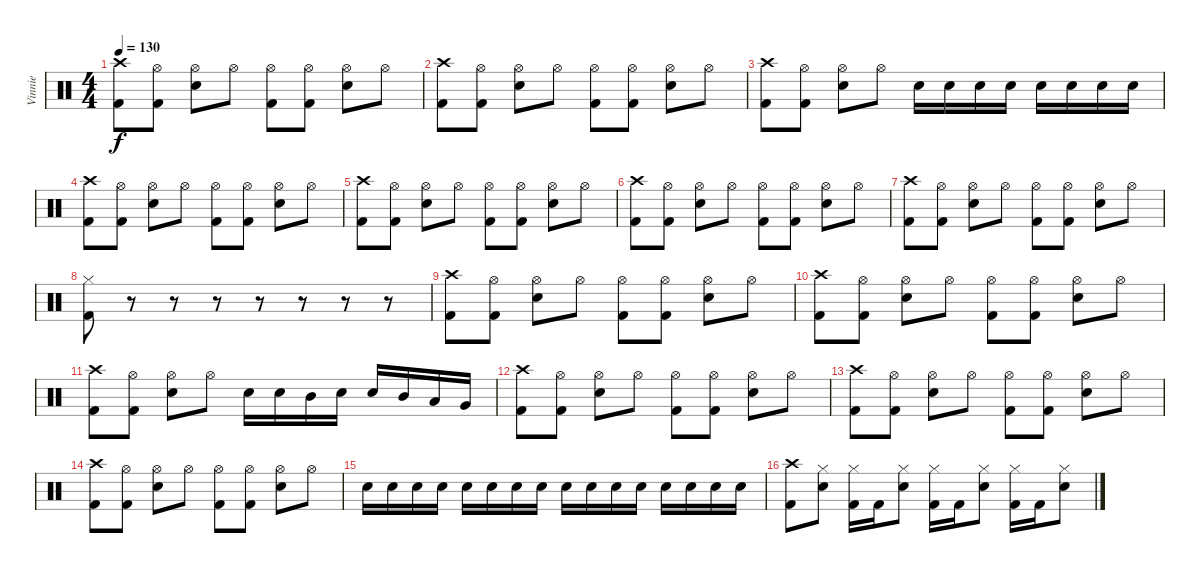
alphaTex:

\track ("Vinnie" "Vinnie") {instrument percussion}
\staff {score}
\articulation defaults
\ts (4 4)
\tempo 130
\clef neutral
\ks c
("Crash high (hit)" "Kick (hit) 2").8{dy f} ("Hi-Hat (open)" "Kick (hit) 2").8 ("Hi-Hat (open)" "Electric Snare (hit)").8 "Hi-Hat (open)".8 ("Hi-Hat (open)" "Kick (hit) 2").8 ("Hi-Hat (open)" "Kick (hit) 2").8 ("Hi-Hat (open)" "Electric Snare (hit)").8 "Hi-Hat (open)".8 |
("Crash high (hit)" "Kick (hit) 2").8 ("Hi-Hat (open)" "Kick (hit) 2").8 ("Hi-Hat (open)" "Electric Snare (hit)").8 "Hi-Hat (open)".8 ("Hi-Hat (open)" "Kick (hit) 2").8 ("Hi-Hat (open)" "Kick (hit) 2").8 ("Hi-Hat (open)" "Electric Snare (hit)").8 "Hi-Hat (open)".8 |
("Crash high (hit)" "Kick (hit) 2").8 ("Hi-Hat (open)" "Kick (hit) 2").8 ("Hi-Hat (open)" "Electric Snare (hit)").8 "Hi-Hat (open)".8 "Electric Snare (hit)".16 "Electric Snare (hit)".16 "Electric Snare (hit)".16 "Electric Snare (hit)".16 "Electric Snare (hit)".16 "Electric Snare (hit)".16 "Electric Snare (hit)".16 "Electric Snare (hit)".16 |
("Crash high (hit)" "Kick (hit) 2").8 ("Hi-Hat (open)" "Kick (hit) 2").8 ("Hi-Hat (open)" "Electric Snare (hit)").8 "Hi-Hat (open)".8 ("Hi-Hat (open)" "Kick (hit) 2").8 ("Hi-Hat (open)" "Kick (hit) 2").8 ("Hi-Hat (open)" "Electric Snare (hit)").8 "Hi-Hat (open)".8 |
("Crash high (hit)" "Kick (hit) 2").8 ("Hi-Hat (open)" "Kick (hit) 2").8 ("Hi-Hat (open)" "Electric Snare (hit)").8 "Hi-Hat (open)".8 ("Hi-Hat (open)" "Kick (hit) 2").8 ("Hi-Hat (open)" "Kick (hit) 2").8 ("Hi-Hat (open)" "Electric Snare (hit)").8 "Hi-Hat (open)".8 |
("Crash high (hit)" "Kick (hit) 2").8 ("Hi-Hat (open)" "Kick (hit) 2").8 ("Hi-Hat (open)" "Electric Snare (hit)").8 "Hi-Hat (open)".8 ("Hi-Hat (open)" "Kick (hit) 2").8 ("Hi-Hat (open)" "Kick (hit) 2").8 ("Hi-Hat (open)" "Electric Snare (hit)").8 "Hi-Hat (open)".8 |
("Crash high (hit)" "Kick (hit) 2").8 ("Hi-Hat (open)" "Kick (hit) 2").8 ("Hi-Hat (open)" "Electric Snare (hit)").8 "Hi-Hat (open)".8 ("Hi-Hat (open)" "Kick (hit) 2").8 ("Hi-Hat (open)" "Kick (hit) 2").8 ("Hi-Hat (open)" "Electric Snare (hit)").8 "Hi-Hat (open)".8 |
("Hi-Hat (closed)" "Kick (hit) 2").8 r.8 r.8 r.8 r.8 r.8 r.8 r.8 |
("Crash high (hit)" "Kick (hit) 2").8 ("Hi-Hat (open)" "Kick (hit) 2").8 ("Hi-Hat (open)" "Electric Snare (hit)").8 "Hi-Hat (open)".8 ("Hi-Hat (open)" "Kick (hit) 2").8 ("Hi-Hat (open)" "Kick (hit) 2").8 ("Hi-Hat (open)" "Electric Snare (hit)").8 "Hi-Hat (open)".8 |
("Crash high (hit)" "Kick (hit) 2").8 ("Hi-Hat (open)" "Kick (hit) 2").8 ("Hi-Hat (open)" "Electric Snare (hit)").8 "Hi-Hat (open)".8 ("Hi-Hat (open)" "Kick (hit) 2").8 ("Hi-Hat (open)" "Kick (hit) 2").8 ("Hi-Hat (open)" "Electric Snare (hit)").8 "Hi-Hat (open)".8 |
("Crash high (hit)" "Kick (hit) 2").8 ("Hi-Hat (open)" "Kick (hit) 2").8 ("Hi-Hat (open)" "Electric Snare (hit)").8 "Hi-Hat (open)".8 "Electric Snare (hit)".16 "Electric Snare (hit)".16 "Mid Tom (hit)".16 "Electric Snare (hit)".16 "Electric Snare (hit)".16 "Mid Tom (hit)".16 "Low Tom (hit)".16 "Very Low Tom (hit)".16 |
("Crash high (hit)" "Kick (hit) 2").8 ("Hi-Hat (open)" "Kick (hit) 2").8 ("Hi-Hat (open)" "Electric Snare (hit)").8 "Hi-Hat (open)".8 ("Hi-Hat (open)" "Kick (hit) 2").8 ("Hi-Hat (open)" "Kick (hit) 2").8 ("Hi-Hat (open)" "Electric Snare (hit)").8 "Hi-Hat (open)".8 |
("Crash high (hit)" "Kick (hit) 2").8 ("Hi-Hat (open)" "Kick (hit) 2").8 ("Hi-Hat (open)" "Electric Snare (hit)").8 "Hi-Hat (open)".8 ("Hi-Hat (open)" "Kick (hit) 2").8 ("Hi-Hat (open)" "Kick (hit) 2").8 ("Hi-Hat (open)" "Electric Snare (hit)").8 "Hi-Hat (open)".8 |
("Crash high (hit)" "Kick (hit) 2").8 ("Hi-Hat (open)" "Kick (hit) 2").8 ("Hi-Hat (open)" "Electric Snare (hit)").8 "Hi-Hat (open)".8 ("Hi-Hat (open)" "Kick (hit) 2").8 ("Hi-Hat (open)" "Kick (hit) 2").8 ("Hi-Hat (open)" "Electric Snare (hit)").8 "Hi-Hat (open)".8 |
"Electric Snare (hit)".16 "Electric Snare (hit)".16 "Electric Snare (hit)".16 "Electric Snare (hit)".16 "Electric Snare (hit)".16 "Electric Snare (hit)".16 "Electric Snare (hit)".16 "Electric Snare (hit)".16 "Electric Snare (hit)".16 "Electric Snare (hit)".16 "Electric Snare (hit)".16 "Electric Snare (hit)".16 "Electric Snare (hit)".16 "Electric Snare (hit)".16 "Electric Snare (hit)".16 "Electric Snare (hit)".16 |
("Crash high (hit)" "Kick (hit) 2").8 ("Hi-Hat (closed)" "Electric Snare (hit)").8 ("Hi-Hat (closed)" "Kick (hit) 2").16 "Kick (hit) 2".16 ("Hi-Hat (closed)" "Electric Snare (hit)").8 ("Hi-Hat (closed)" "Kick (hit) 2").16 "Kick (hit) 2".16 ("Hi-Hat (closed)" "Electric Snare (hit)").8 ("Hi-Hat (closed)" "Kick (hit) 2").16 "Kick (hit) 2".16 ("Hi-Hat (closed)" "Electric Snare (hit)").8
